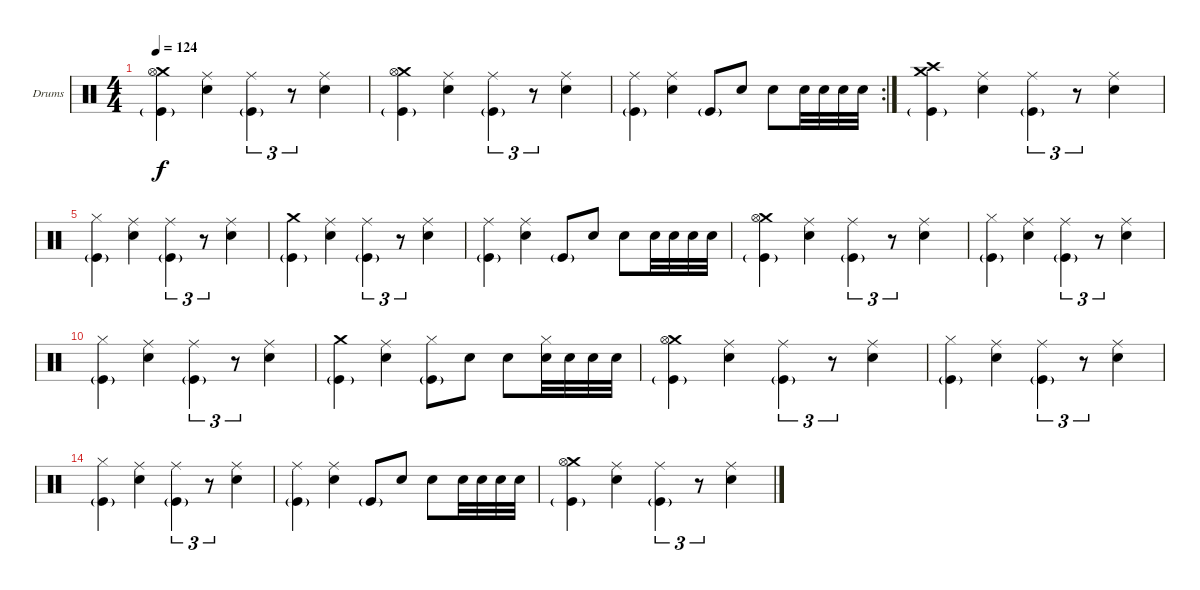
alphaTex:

\bracketExtendMode nobrackets
\firstSystemTrackNameOrientation horizontal
\otherSystemsTrackNameOrientation horizontal
\defaultBarNumberDisplay FirstOfSystem
\track ("Drumkit" "Drums") {instrument percussion}
\staff {score}
\articulation defaults
\ts (4 4)
\tempo 124
\clef neutral
\ks c
("Kick (hit)"{g} "Crash medium (hit)" "Hi-Hat (open)").4{dy f} ("Snare (hit) 2" "Ride (middle)").4 ("Kick (hit)"{g} "Ride (middle)").4{tu (3 2)} r.8{tu (3 2)} ("Snare (hit) 2" "Ride (middle)").4 |
("Kick (hit)"{g} "Crash medium (hit)" "Hi-Hat (open)").4 ("Snare (hit) 2" "Ride (middle)").4 ("Kick (hit)"{g} "Ride (middle)").4{tu (3 2)} r.8{tu (3 2)} ("Snare (hit) 2" "Ride (middle)").4 |
\rc 2
("Kick (hit)"{g} "Ride (middle)").4 ("Snare (hit) 2" "Ride (middle)").4 "Kick (hit)"{g}.8 "Snare (hit) 2".8 "Snare (hit) 2".8 "Snare (hit) 2".32 "Snare (hit) 2".32 "Snare (hit) 2".32 "Snare (hit) 2".32 |
("Kick (hit)"{g} "Crash high (hit)" "Crash medium (hit)").4 ("Snare (hit) 2" "Ride (middle)").4 ("Kick (hit)"{g} "Ride (middle)").4{tu (3 2)} r.8{tu (3 2)} ("Snare (hit) 2" "Ride (middle)").4 |
("Kick (hit)"{g} "Hi-Hat (closed)").4 ("Snare (hit) 2" "Ride (middle)").4 ("Kick (hit)"{g} "Ride (middle)").4{tu (3 2)} r.8{tu (3 2)} ("Snare (hit) 2" "Ride (middle)").4 |
("Kick (hit)"{g} "Crash medium (hit)").4 ("Snare (hit) 2" "Ride (middle)").4 ("Kick (hit)"{g} "Ride (middle)").4{tu (3 2)} r.8{tu (3 2)} ("Snare (hit) 2" "Ride (middle)").4 |
("Kick (hit)"{g} "Ride (middle)").4 ("Snare (hit) 2" "Ride (middle)").4 "Kick (hit)"{g}.8 "Snare (hit) 2".8 "Snare (hit) 2".8 "Snare (hit) 2".32 "Snare (hit) 2".32 "Snare (hit) 2".32 "Snare (hit) 2".32 |
("Kick (hit)"{g} "Crash medium (hit)" "Hi-Hat (open)").4 ("Snare (hit) 2" "Ride (middle)").4 ("Kick (hit)"{g} "Ride (middle)").4{tu (3 2)} r.8{tu (3 2)} ("Snare (hit) 2" "Ride (middle)").4 |
("Kick (hit)"{g} "Hi-Hat (closed)").4 ("Snare (hit) 2" "Ride (middle)").4 ("Kick (hit)"{g} "Ride (middle)").4{tu (3 2)} r.8{tu (3 2)} ("Snare (hit) 2" "Ride (middle)").4 |
("Kick (hit)"{g} "Hi-Hat (closed)").4 ("Snare (hit) 2" "Ride (middle)").4 ("Kick (hit)"{g} "Ride (middle)").4{tu (3 2)} r.8{tu (3 2)} ("Snare (hit) 2" "Ride (middle)").4 |
("Kick (hit)"{g} "Crash medium (hit)").4 ("Snare (hit) 2" "Ride (middle)").4 ("Kick (hit)"{g} "Hi-Hat (closed)").8 "Snare (hit) 2".8 "Snare (hit) 2".8 ("Snare (hit) 2" "Hi-Hat (closed)").32 "Snare (hit) 2".32 "Snare (hit) 2".32 "Snare (hit) 2".32 |
("Kick (hit)"{g} "Crash medium (hit)" "Hi-Hat (open)").4 ("Snare (hit) 2" "Ride (middle)").4 ("Kick (hit)"{g} "Ride (middle)").4{tu (3 2)} r.8{tu (3 2)} ("Snare (hit) 2" "Ride (middle)").4 |
("Kick (hit)"{g} "Hi-Hat (closed)").4 ("Snare (hit) 2" "Ride (middle)").4 ("Kick (hit)"{g} "Ride (middle)").4{tu (3 2)} r.8{tu (3 2)} ("Snare (hit) 2" "Ride (middle)").4 |
("Kick (hit)"{g} "Hi-Hat (closed)").4 ("Snare (hit) 2" "Ride (middle)").4 ("Kick (hit)"{g} "Ride (middle)").4{tu (3 2)} r.8{tu (3 2)} ("Snare (hit) 2" "Ride (middle)").4 |
("Kick (hit)"{g} "Ride (middle)").4 ("Snare (hit) 2" "Ride (middle)").4 "Kick (hit)"{g}.8 "Snare (hit) 2".8 "Snare (hit) 2".8 "Snare (hit) 2".32 "Snare (hit) 2".32 "Snare (hit) 2".32 "Snare (hit) 2".32 |
("Kick (hit)"{g} "Crash medium (hit)" "Hi-Hat (open)").4 ("Snare (hit) 2" "Ride (middle)").4 ("Kick (hit)"{g} "Ride (middle)").4{tu (3 2)} r.8{tu (3 2)} ("Snare (hit) 2" "Ride (middle)").4
